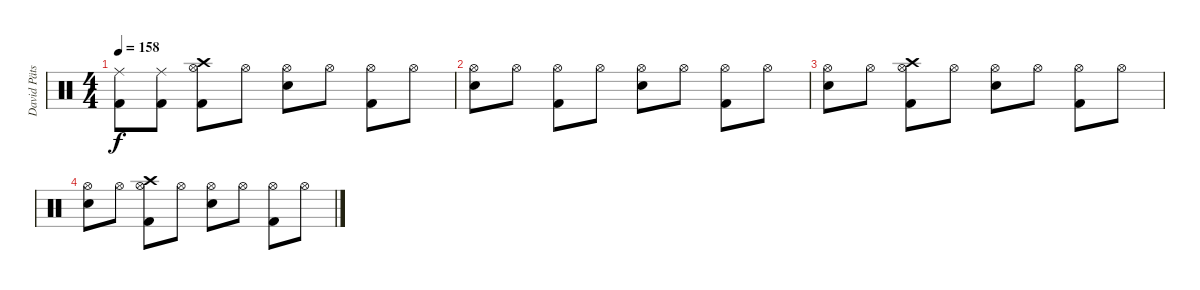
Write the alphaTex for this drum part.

\track ("David Pätsch" "David Päts") {instrument percussion}
\staff {score}
\articulation defaults
\ts (4 4)
\tempo 158
\clef neutral
\ks c
("Ride (middle)" "Kick (hit) 2").8{dy f} ("Ride (middle)" "Kick (hit) 2").8 ("Crash high (hit)" "Hi-Hat (open)" "Kick (hit) 2").8 "Hi-Hat (open)".8 ("Hi-Hat (open)" "Snare (hit) 2").8 "Hi-Hat (open)".8 ("Hi-Hat (open)" "Kick (hit) 2").8 "Hi-Hat (open)".8 |
("Hi-Hat (open)" "Snare (hit) 2").8 "Hi-Hat (open)".8 ("Hi-Hat (open)" "Kick (hit) 2").8 "Hi-Hat (open)".8 ("Hi-Hat (open)" "Snare (hit) 2").8 "Hi-Hat (open)".8 ("Hi-Hat (open)" "Kick (hit) 2").8 "Hi-Hat (open)".8 |
("Hi-Hat (open)" "Snare (hit) 2").8 "Hi-Hat (open)".8 ("Crash high (hit)" "Hi-Hat (open)" "Kick (hit) 2").8 "Hi-Hat (open)".8 ("Hi-Hat (open)" "Snare (hit) 2").8 "Hi-Hat (open)".8 ("Hi-Hat (open)" "Kick (hit) 2").8 "Hi-Hat (open)".8 |
("Hi-Hat (open)" "Snare (hit) 2").8 "Hi-Hat (open)".8 ("Crash high (hit)" "Hi-Hat (open)" "Kick (hit) 2").8 "Hi-Hat (open)".8 ("Hi-Hat (open)" "Snare (hit) 2").8 "Hi-Hat (open)".8 ("Hi-Hat (open)" "Kick (hit) 2").8 "Hi-Hat (open)".8
